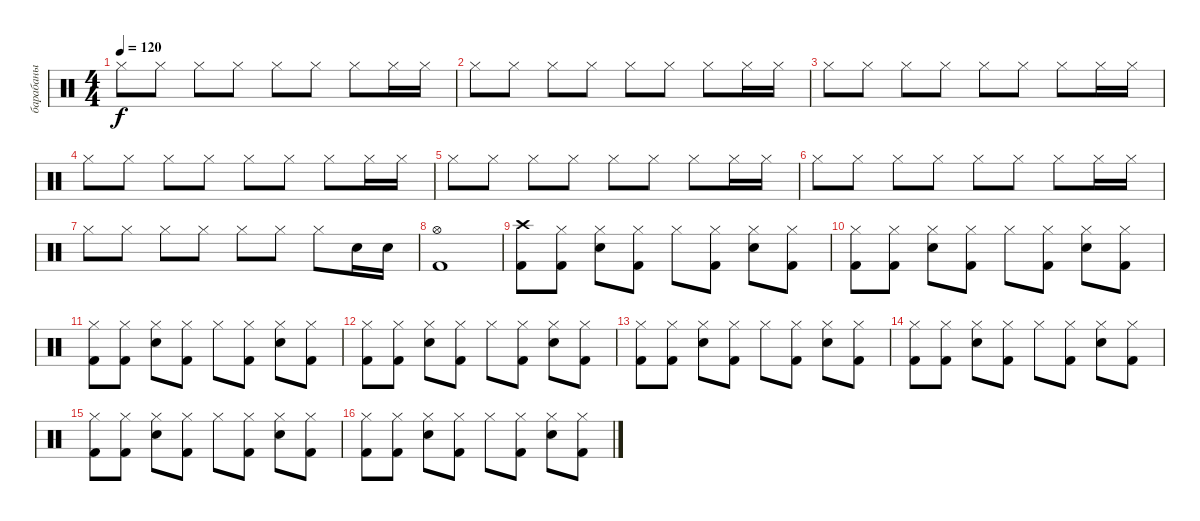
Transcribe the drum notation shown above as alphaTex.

\track ("барабаны" "барабаны") {instrument percussion}
\staff {score}
\articulation defaults
\ts (4 4)
\tempo 120
\clef neutral
\ks c "Hi-Hat (closed)".8{dy f} "Hi-Hat (closed)".8 "Hi-Hat (closed)".8 "Hi-Hat (closed)".8 "Hi-Hat (closed)".8 "Hi-Hat (closed)".8 "Hi-Hat (closed)".8 "Hi-Hat (closed)".16 "Hi-Hat (closed)".16
|
"Hi-Hat (closed)".8 "Hi-Hat (closed)".8 "Hi-Hat (closed)".8 "Hi-Hat (closed)".8 "Hi-Hat (closed)".8 "Hi-Hat (closed)".8 "Hi-Hat (closed)".8 "Hi-Hat (closed)".16 "Hi-Hat (closed)".16 |
"Hi-Hat (closed)".8 "Hi-Hat (closed)".8 "Hi-Hat (closed)".8 "Hi-Hat (closed)".8 "Hi-Hat (closed)".8 "Hi-Hat (closed)".8 "Hi-Hat (closed)".8 "Hi-Hat (closed)".16 "Hi-Hat (closed)".16 |
"Hi-Hat (closed)".8 "Hi-Hat (closed)".8 "Hi-Hat (closed)".8 "Hi-Hat (closed)".8 "Hi-Hat (closed)".8 "Hi-Hat (closed)".8 "Hi-Hat (closed)".8 "Hi-Hat (closed)".16 "Hi-Hat (closed)".16 |
"Hi-Hat (closed)".8 "Hi-Hat (closed)".8 "Hi-Hat (closed)".8 "Hi-Hat (closed)".8 "Hi-Hat (closed)".8 "Hi-Hat (closed)".8 "Hi-Hat (closed)".8 "Hi-Hat (closed)".16 "Hi-Hat (closed)".16 |
"Hi-Hat (closed)".8 "Hi-Hat (closed)".8 "Hi-Hat (closed)".8 "Hi-Hat (closed)".8 "Hi-Hat (closed)".8 "Hi-Hat (closed)".8 "Hi-Hat (closed)".8 "Hi-Hat (closed)".16 "Hi-Hat (closed)".16 |
"Hi-Hat (closed)".8 "Hi-Hat (closed)".8 "Hi-Hat (closed)".8 "Hi-Hat (closed)".8 "Hi-Hat (closed)".8 "Hi-Hat (closed)".8 "Hi-Hat (closed)".8 "Snare (hit) 2".16 "Snare (hit) 2".16 |
("Hi-Hat (open)" "Kick (hit) 2").1 |
("Crash high (hit)" "Kick (hit) 2").8 ("Hi-Hat (closed)" "Kick (hit) 2").8 ("Hi-Hat (closed)" "Snare (hit) 2").8 ("Hi-Hat (closed)" "Kick (hit) 2").8 "Hi-Hat (closed)".8 ("Hi-Hat (closed)" "Kick (hit) 2").8 ("Hi-Hat (closed)" "Snare (hit) 2").8 ("Hi-Hat (closed)" "Kick (hit) 2").8 |
("Hi-Hat (closed)" "Kick (hit) 2").8 ("Hi-Hat (closed)" "Kick (hit) 2").8 ("Hi-Hat (closed)" "Snare (hit) 2").8 ("Hi-Hat (closed)" "Kick (hit) 2").8 "Hi-Hat (closed)".8 ("Hi-Hat (closed)" "Kick (hit) 2").8 ("Hi-Hat (closed)" "Snare (hit) 2").8 ("Hi-Hat (closed)" "Kick (hit) 2").8 |
("Hi-Hat (closed)" "Kick (hit) 2").8 ("Hi-Hat (closed)" "Kick (hit) 2").8 ("Hi-Hat (closed)" "Snare (hit) 2").8 ("Hi-Hat (closed)" "Kick (hit) 2").8 "Hi-Hat (closed)".8 ("Hi-Hat (closed)" "Kick (hit) 2").8 ("Hi-Hat (closed)" "Snare (hit) 2").8 ("Hi-Hat (closed)" "Kick (hit) 2").8 |
("Hi-Hat (closed)" "Kick (hit) 2").8 ("Hi-Hat (closed)" "Kick (hit) 2").8 ("Hi-Hat (closed)" "Snare (hit) 2").8 ("Hi-Hat (closed)" "Kick (hit) 2").8 "Hi-Hat (closed)".8 ("Hi-Hat (closed)" "Kick (hit) 2").8 ("Hi-Hat (closed)" "Snare (hit) 2").8 ("Hi-Hat (closed)" "Kick (hit) 2").8 |
("Hi-Hat (closed)" "Kick (hit) 2").8 ("Hi-Hat (closed)" "Kick (hit) 2").8 ("Hi-Hat (closed)" "Snare (hit) 2").8 ("Hi-Hat (closed)" "Kick (hit) 2").8 "Hi-Hat (closed)".8 ("Hi-Hat (closed)" "Kick (hit) 2").8 ("Hi-Hat (closed)" "Snare (hit) 2").8 ("Hi-Hat (closed)" "Kick (hit) 2").8 |
("Hi-Hat (closed)" "Kick (hit) 2").8 ("Hi-Hat (closed)" "Kick (hit) 2").8 ("Hi-Hat (closed)" "Snare (hit) 2").8 ("Hi-Hat (closed)" "Kick (hit) 2").8 "Hi-Hat (closed)".8 ("Hi-Hat (closed)" "Kick (hit) 2").8 ("Hi-Hat (closed)" "Snare (hit) 2").8 ("Hi-Hat (closed)" "Kick (hit) 2").8 |
("Hi-Hat (closed)" "Kick (hit) 2").8 ("Hi-Hat (closed)" "Kick (hit) 2").8 ("Hi-Hat (closed)" "Snare (hit) 2").8 ("Hi-Hat (closed)" "Kick (hit) 2").8 "Hi-Hat (closed)".8 ("Hi-Hat (closed)" "Kick (hit) 2").8 ("Hi-Hat (closed)" "Snare (hit) 2").8 ("Hi-Hat (closed)" "Kick (hit) 2").8 |
("Hi-Hat (closed)" "Kick (hit) 2").8 ("Hi-Hat (closed)" "Kick (hit) 2").8 ("Hi-Hat (closed)" "Snare (hit) 2").8 ("Hi-Hat (closed)" "Kick (hit) 2").8 "Hi-Hat (closed)".8 ("Hi-Hat (closed)" "Kick (hit) 2").8 ("Hi-Hat (closed)" "Snare (hit) 2").8 ("Hi-Hat (closed)" "Kick (hit) 2").8
